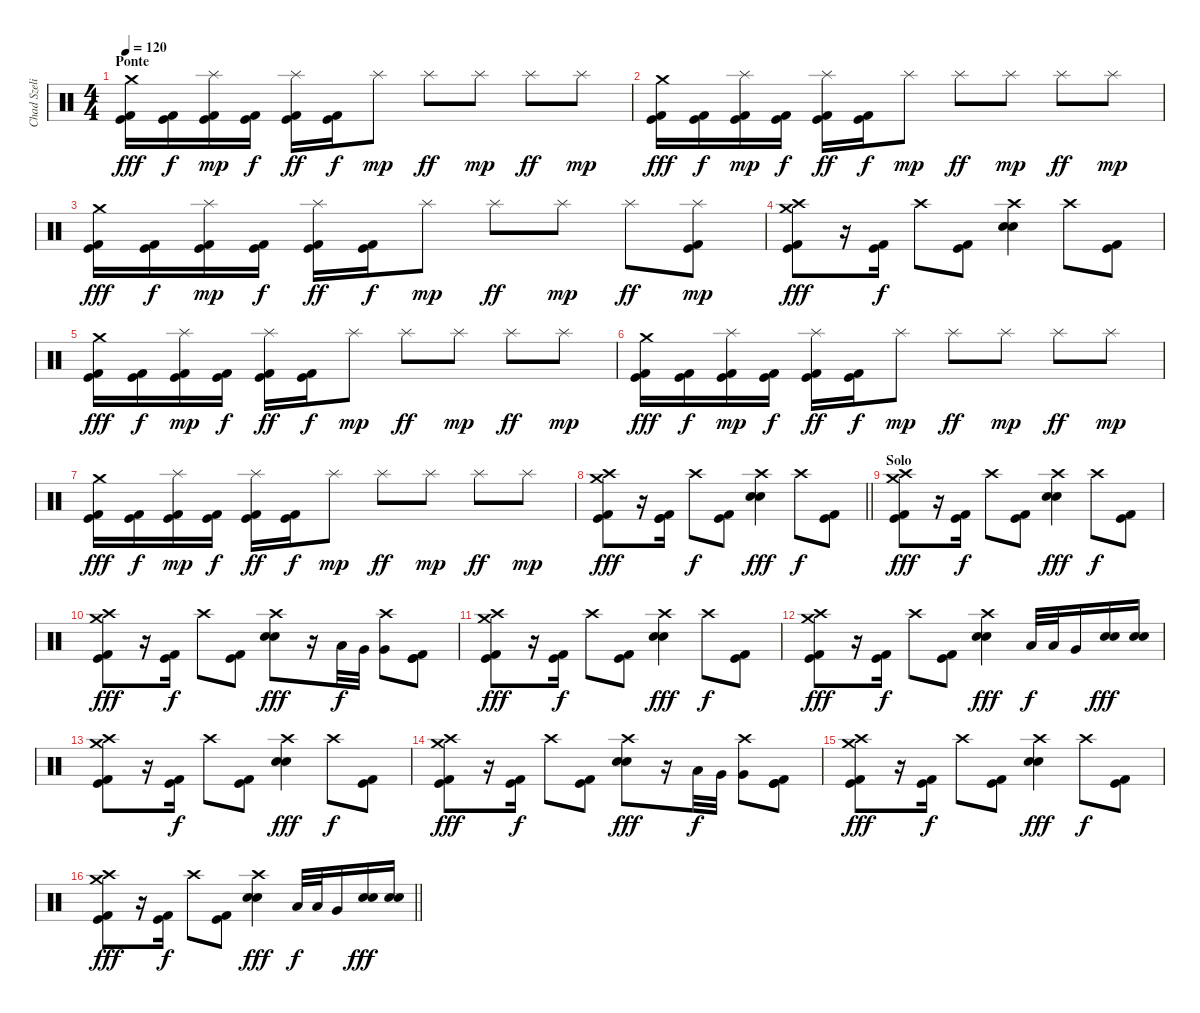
\track ("Chad Szeliga" "Chad Szeli") {instrument percussion}
\staff {score}
\articulation defaults
\ts (4 4)
\section ("" "Ponte")
\tempo 120
\clef neutral
\ks c
("Crash medium (hit)" "Kick (hit) 2" "Kick (hit)").16{dy fff} ("Kick (hit) 2" "Kick (hit)").16{dy f} ("Splash (hit)" "Kick (hit) 2" "Kick (hit)").16{dy mp} ("Kick (hit) 2" "Kick (hit)").16{dy f} ("Splash (hit)" "Kick (hit) 2" "Kick (hit)").16{dy ff} ("Kick (hit) 2" "Kick (hit)").16{dy f} "Splash (hit)".8{dy mp} "Splash (hit)".8{dy ff} "Splash (hit)".8{dy mp} "Splash (hit)".8{dy ff} "Splash (hit)".8{dy mp} |
("Crash medium (hit)" "Kick (hit) 2" "Kick (hit)").16{dy fff} ("Kick (hit) 2" "Kick (hit)").16{dy f} ("Splash (hit)" "Kick (hit) 2" "Kick (hit)").16{dy mp} ("Kick (hit) 2" "Kick (hit)").16{dy f} ("Splash (hit)" "Kick (hit) 2" "Kick (hit)").16{dy ff} ("Kick (hit) 2" "Kick (hit)").16{dy f} "Splash (hit)".8{dy mp} "Splash (hit)".8{dy ff} "Splash (hit)".8{dy mp} "Splash (hit)".8{dy ff} "Splash (hit)".8{dy mp} |
("Crash medium (hit)" "Kick (hit) 2" "Kick (hit)").16{dy fff} ("Kick (hit) 2" "Kick (hit)").16{dy f} ("Splash (hit)" "Kick (hit) 2" "Kick (hit)").16{dy mp} ("Kick (hit) 2" "Kick (hit)").16{dy f} ("Splash (hit)" "Kick (hit) 2" "Kick (hit)").16{dy ff} ("Kick (hit) 2" "Kick (hit)").16{dy f} "Splash (hit)".8{dy mp} "Splash (hit)".8{dy ff} "Splash (hit)".8{dy mp} "Splash (hit)".8{dy ff} ("Splash (hit)" "Kick (hit) 2" "Kick (hit)").8{dy mp} |
("Crash high (hit)" "Kick (hit) 2" "Kick (hit)" "Crash medium (hit)").8{dy fff} r.16 ("Kick (hit) 2" "Kick (hit)").16{dy f beam Down} "Crash high (hit)".8 ("Kick (hit) 2" "Kick (hit)").8 ("Crash high (hit)" "Snare (hit) 2" "Snare (hit) 2").4 "Crash high (hit)".8 ("Kick (hit) 2" "Kick (hit)").8 |
("Crash medium (hit)" "Kick (hit) 2" "Kick (hit)").16{dy fff} ("Kick (hit) 2" "Kick (hit)").16{dy f} ("Splash (hit)" "Kick (hit) 2" "Kick (hit)").16{dy mp} ("Kick (hit) 2" "Kick (hit)").16{dy f} ("Splash (hit)" "Kick (hit) 2" "Kick (hit)").16{dy ff} ("Kick (hit) 2" "Kick (hit)").16{dy f} "Splash (hit)".8{dy mp} "Splash (hit)".8{dy ff} "Splash (hit)".8{dy mp} "Splash (hit)".8{dy ff} "Splash (hit)".8{dy mp} |
("Crash medium (hit)" "Kick (hit) 2" "Kick (hit)").16{dy fff} ("Kick (hit) 2" "Kick (hit)").16{dy f} ("Splash (hit)" "Kick (hit) 2" "Kick (hit)").16{dy mp} ("Kick (hit) 2" "Kick (hit)").16{dy f} ("Splash (hit)" "Kick (hit) 2" "Kick (hit)").16{dy ff} ("Kick (hit) 2" "Kick (hit)").16{dy f} "Splash (hit)".8{dy mp} "Splash (hit)".8{dy ff} "Splash (hit)".8{dy mp} "Splash (hit)".8{dy ff} "Splash (hit)".8{dy mp} |
("Crash medium (hit)" "Kick (hit) 2" "Kick (hit)").16{dy fff} ("Kick (hit) 2" "Kick (hit)").16{dy f} ("Splash (hit)" "Kick (hit) 2" "Kick (hit)").16{dy mp} ("Kick (hit) 2" "Kick (hit)").16{dy f} ("Splash (hit)" "Kick (hit) 2" "Kick (hit)").16{dy ff} ("Kick (hit) 2" "Kick (hit)").16{dy f} "Splash (hit)".8{dy mp} "Splash (hit)".8{dy ff} "Splash (hit)".8{dy mp} "Splash (hit)".8{dy ff} "Splash (hit)".8{dy mp} |
\barLineRight lightlight
("Crash high (hit)" "Kick (hit) 2" "Kick (hit)" "Crash medium (hit)").8{dy fff} r.16 ("Kick (hit) 2" "Kick (hit)" "Kick (hit)").16{beam Down} "Crash high (hit)".8{dy f} ("Kick (hit) 2" "Kick (hit)").8 ("Crash high (hit)" "Snare (hit) 2" "Snare (hit) 2").4{dy fff} "Crash high (hit)".8{dy f} ("Kick (hit) 2" "Kick (hit)").8 |
\section ("" "Solo")
("Crash high (hit)" "Kick (hit) 2" "Kick (hit)" "Crash medium (hit)").8{dy fff} r.16 ("Kick (hit) 2" "Kick (hit)").16{dy f beam Down} "Crash high (hit)".8 ("Kick (hit) 2" "Kick (hit)").8 ("Crash high (hit)" "Snare (hit) 2" "Snare (hit) 2").4{dy fff} "Crash high (hit)".8{dy f} ("Kick (hit) 2" "Kick (hit)").8 |
("Crash high (hit)" "Kick (hit) 2" "Kick (hit)" "Crash medium (hit)").8{dy fff} r.16 ("Kick (hit) 2" "Kick (hit)").16{dy f beam Down} "Crash high (hit)".8 ("Kick (hit) 2" "Kick (hit)").8 ("Crash high (hit)" "Snare (hit) 2" "Snare (hit) 2").8{dy fff} r.16 "Low Tom (hit)".32{dy f} "Very Low Tom (hit)".32 ("Crash high (hit)" "Very Low Tom (hit)").8 ("Kick (hit) 2" "Kick (hit)" "Kick (hit)").8 |
("Crash high (hit)" "Kick (hit) 2" "Kick (hit)" "Crash medium (hit)").8{dy fff} r.16 ("Kick (hit) 2" "Kick (hit)").16{dy f beam Down} "Crash high (hit)".8 ("Kick (hit) 2" "Kick (hit)").8 ("Crash high (hit)" "Snare (hit) 2" "Snare (hit) 2").4{dy fff} "Crash high (hit)".8{dy f} ("Kick (hit) 2" "Kick (hit)").8 |
("Crash high (hit)" "Kick (hit) 2" "Kick (hit)" "Crash medium (hit)").8{dy fff} r.16 ("Kick (hit) 2" "Kick (hit)").16{dy f beam Down} "Crash high (hit)".8 ("Kick (hit) 2" "Kick (hit)").8 ("Crash high (hit)" "Snare (hit) 2" "Snare (hit) 2").4{dy fff} "Low Tom (hit)".32{dy f} "Low Tom (hit)".32 "Very Low Tom (hit)".16 ("Snare (hit) 2" "Snare (hit) 2").16{dy fff} ("Snare (hit) 2" "Snare (hit) 2").16 |
("Crash high (hit)" "Kick (hit) 2" "Kick (hit)" "Crash medium (hit)").8 r.16 ("Kick (hit) 2" "Kick (hit)").16{dy f beam Down} "Crash high (hit)".8 ("Kick (hit) 2" "Kick (hit)").8 ("Crash high (hit)" "Snare (hit) 2" "Snare (hit) 2").4{dy fff} "Crash high (hit)".8{dy f} ("Kick (hit) 2" "Kick (hit)").8 |
("Crash high (hit)" "Kick (hit) 2" "Kick (hit)" "Crash medium (hit)").8{dy fff} r.16 ("Kick (hit) 2" "Kick (hit)").16{dy f beam Down} "Crash high (hit)".8 ("Kick (hit) 2" "Kick (hit)").8 ("Crash high (hit)" "Snare (hit) 2" "Snare (hit) 2").8{dy fff} r.16 "Low Tom (hit)".32{dy f} "Very Low Tom (hit)".32 ("Crash high (hit)" "Very Low Tom (hit)").8 ("Kick (hit) 2" "Kick (hit)" "Kick (hit)").8 |
("Crash high (hit)" "Kick (hit) 2" "Kick (hit)" "Crash medium (hit)").8{dy fff} r.16 ("Kick (hit) 2" "Kick (hit)").16{dy f beam Down} "Crash high (hit)".8 ("Kick (hit) 2" "Kick (hit)").8 ("Crash high (hit)" "Snare (hit) 2" "Snare (hit) 2").4{dy fff} "Crash high (hit)".8{dy f} ("Kick (hit) 2" "Kick (hit)").8 |
\barLineRight lightlight
("Crash high (hit)" "Kick (hit) 2" "Kick (hit)" "Crash medium (hit)").8{dy fff} r.16 ("Kick (hit) 2" "Kick (hit)").16{dy f beam Down} "Crash high (hit)".8 ("Kick (hit) 2" "Kick (hit)").8 ("Crash high (hit)" "Snare (hit) 2" "Snare (hit) 2").4{dy fff} "Low Tom (hit)".32{dy f} "Low Tom (hit)".32 "Very Low Tom (hit)".16 ("Snare (hit) 2" "Snare (hit) 2").16{dy fff} ("Snare (hit) 2" "Snare (hit) 2").16
